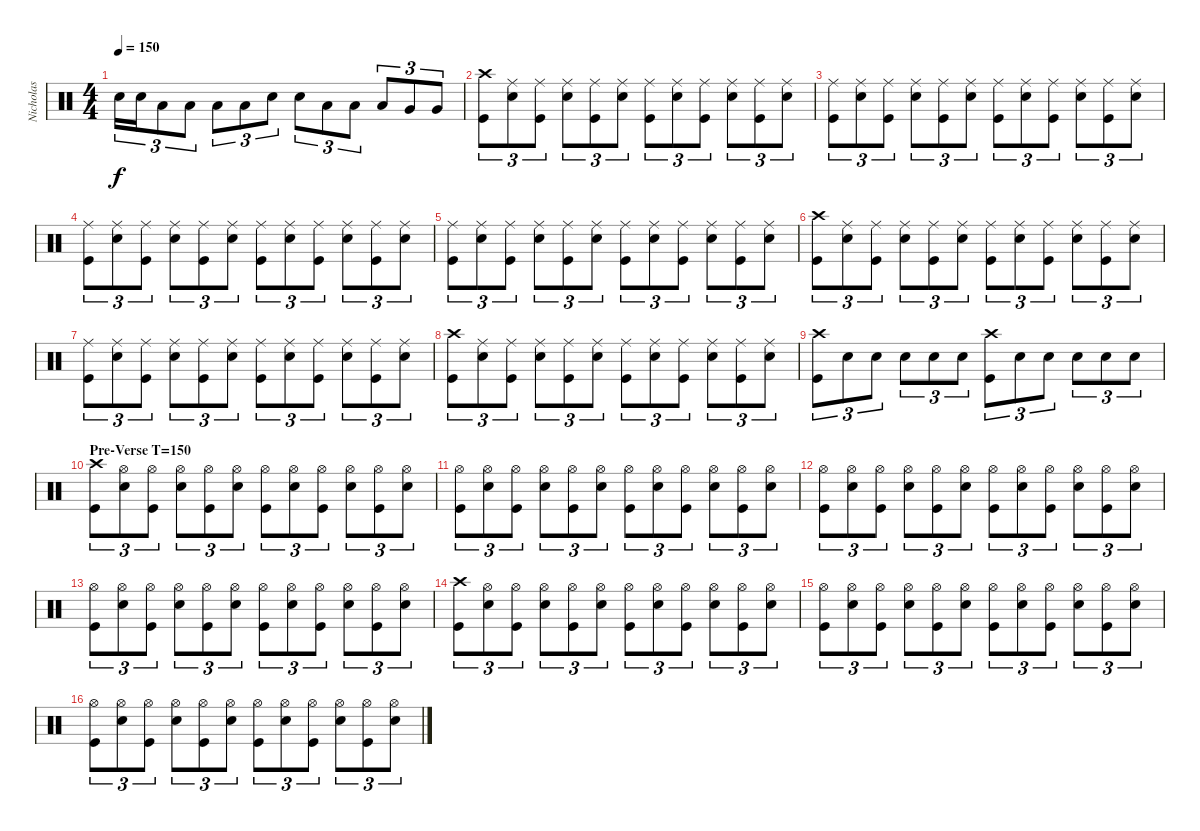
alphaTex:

\track ("Nicholas" "Nicholas") {instrument percussion}
\staff {score}
\articulation defaults
\ts (4 4)
\tempo 150
\clef neutral
\ks c "Electric Snare (hit)".16{tu (3 2) dy f} "Electric Snare (hit)".16{tu (3 2)} "Low Tom (hit)".8{tu (3 2) balance 11} "Low Tom (hit)".8{tu (3 2)} "Low Tom (hit)".8{tu (3 2)} "Low Tom (hit)".8{tu (3 2)} "Electric Snare (hit)".8{tu (3 2) balance 8} "Electric Snare (hit)".8{tu (3 2)} "Low Tom (hit)".8{tu (3 2) balance 11} "Low Tom (hit)".8{tu (3 2)} "Low Tom (hit)".8{tu (3 2)} "Very Low Tom (hit)".8{tu (3 2) balance 5} "Very Low Tom (hit)".8{tu (3 2)}
|
("Crash high (hit)" "Kick (hit)").8{tu (3 2) balance 8} ("Ride (middle)" "Electric Snare (hit)").8{tu (3 2)} ("Ride (middle)" "Kick (hit)").8{tu (3 2)} ("Ride (middle)" "Electric Snare (hit)").8{tu (3 2)} ("Ride (middle)" "Kick (hit)").8{tu (3 2)} ("Ride (middle)" "Electric Snare (hit)").8{tu (3 2)} ("Ride (middle)" "Kick (hit)").8{tu (3 2)} ("Ride (middle)" "Electric Snare (hit)").8{tu (3 2)} ("Ride (middle)" "Kick (hit)").8{tu (3 2)} ("Ride (middle)" "Electric Snare (hit)").8{tu (3 2)} ("Ride (middle)" "Kick (hit)").8{tu (3 2)} ("Ride (middle)" "Electric Snare (hit)").8{tu (3 2)} |
("Ride (middle)" "Kick (hit)").8{tu (3 2)} ("Ride (middle)" "Electric Snare (hit)").8{tu (3 2)} ("Ride (middle)" "Kick (hit)").8{tu (3 2)} ("Ride (middle)" "Electric Snare (hit)").8{tu (3 2)} ("Ride (middle)" "Kick (hit)").8{tu (3 2)} ("Ride (middle)" "Electric Snare (hit)").8{tu (3 2)} ("Ride (middle)" "Kick (hit)").8{tu (3 2)} ("Ride (middle)" "Electric Snare (hit)").8{tu (3 2)} ("Ride (middle)" "Kick (hit)").8{tu (3 2)} ("Ride (middle)" "Electric Snare (hit)").8{tu (3 2)} ("Ride (middle)" "Kick (hit)").8{tu (3 2)} ("Ride (middle)" "Electric Snare (hit)").8{tu (3 2)} |
("Ride (middle)" "Kick (hit)").8{tu (3 2)} ("Ride (middle)" "Electric Snare (hit)").8{tu (3 2)} ("Ride (middle)" "Kick (hit)").8{tu (3 2)} ("Ride (middle)" "Electric Snare (hit)").8{tu (3 2)} ("Ride (middle)" "Kick (hit)").8{tu (3 2)} ("Ride (middle)" "Electric Snare (hit)").8{tu (3 2)} ("Ride (middle)" "Kick (hit)").8{tu (3 2)} ("Ride (middle)" "Electric Snare (hit)").8{tu (3 2)} ("Ride (middle)" "Kick (hit)").8{tu (3 2)} ("Ride (middle)" "Electric Snare (hit)").8{tu (3 2)} ("Ride (middle)" "Kick (hit)").8{tu (3 2)} ("Ride (middle)" "Electric Snare (hit)").8{tu (3 2)} |
("Ride (middle)" "Kick (hit)").8{tu (3 2)} ("Ride (middle)" "Electric Snare (hit)").8{tu (3 2)} ("Ride (middle)" "Kick (hit)").8{tu (3 2)} ("Ride (middle)" "Electric Snare (hit)").8{tu (3 2)} ("Ride (middle)" "Kick (hit)").8{tu (3 2)} ("Ride (middle)" "Electric Snare (hit)").8{tu (3 2)} ("Ride (middle)" "Kick (hit)").8{tu (3 2)} ("Ride (middle)" "Electric Snare (hit)").8{tu (3 2)} ("Ride (middle)" "Kick (hit)").8{tu (3 2)} ("Ride (middle)" "Electric Snare (hit)").8{tu (3 2)} ("Ride (middle)" "Kick (hit)").8{tu (3 2)} ("Ride (middle)" "Electric Snare (hit)").8{tu (3 2)} |
("Crash high (hit)" "Kick (hit)").8{tu (3 2)} ("Ride (middle)" "Electric Snare (hit)").8{tu (3 2)} ("Ride (middle)" "Kick (hit)").8{tu (3 2)} ("Ride (middle)" "Electric Snare (hit)").8{tu (3 2)} ("Ride (middle)" "Kick (hit)").8{tu (3 2)} ("Ride (middle)" "Electric Snare (hit)").8{tu (3 2)} ("Ride (middle)" "Kick (hit)").8{tu (3 2)} ("Ride (middle)" "Electric Snare (hit)").8{tu (3 2)} ("Ride (middle)" "Kick (hit)").8{tu (3 2)} ("Ride (middle)" "Electric Snare (hit)").8{tu (3 2)} ("Ride (middle)" "Kick (hit)").8{tu (3 2)} ("Ride (middle)" "Electric Snare (hit)").8{tu (3 2)} |
("Ride (middle)" "Kick (hit)").8{tu (3 2)} ("Ride (middle)" "Electric Snare (hit)").8{tu (3 2)} ("Ride (middle)" "Kick (hit)").8{tu (3 2)} ("Ride (middle)" "Electric Snare (hit)").8{tu (3 2)} ("Ride (middle)" "Kick (hit)").8{tu (3 2)} ("Ride (middle)" "Electric Snare (hit)").8{tu (3 2)} ("Ride (middle)" "Kick (hit)").8{tu (3 2)} ("Ride (middle)" "Electric Snare (hit)").8{tu (3 2)} ("Ride (middle)" "Kick (hit)").8{tu (3 2)} ("Ride (middle)" "Electric Snare (hit)").8{tu (3 2)} ("Ride (middle)" "Kick (hit)").8{tu (3 2)} ("Ride (middle)" "Electric Snare (hit)").8{tu (3 2)} |
("Crash high (hit)" "Kick (hit)").8{tu (3 2)} ("Ride (middle)" "Electric Snare (hit)").8{tu (3 2)} ("Ride (middle)" "Kick (hit)").8{tu (3 2)} ("Ride (middle)" "Electric Snare (hit)").8{tu (3 2)} ("Ride (middle)" "Kick (hit)").8{tu (3 2)} ("Ride (middle)" "Electric Snare (hit)").8{tu (3 2)} ("Ride (middle)" "Kick (hit)").8{tu (3 2)} ("Ride (middle)" "Electric Snare (hit)").8{tu (3 2)} ("Ride (middle)" "Kick (hit)").8{tu (3 2)} ("Ride (middle)" "Electric Snare (hit)").8{tu (3 2)} ("Ride (middle)" "Kick (hit)").8{tu (3 2)} ("Ride (middle)" "Electric Snare (hit)").8{tu (3 2)} |
("Crash high (hit)" "Kick (hit)").8{tu (3 2)} "Electric Snare (hit)".8{tu (3 2)} "Electric Snare (hit)".8{tu (3 2)} "Electric Snare (hit)".8{tu (3 2)} "Electric Snare (hit)".8{tu (3 2)} "Electric Snare (hit)".8{tu (3 2)} ("Crash high (hit)" "Kick (hit)").8{tu (3 2)} "Electric Snare (hit)".8{tu (3 2)} "Electric Snare (hit)".8{tu (3 2)} "Electric Snare (hit)".8{tu (3 2)} "Electric Snare (hit)".8{tu (3 2)} "Electric Snare (hit)".8{tu (3 2)} |
\section ("" "Pre-Verse T=150")
("Crash high (hit)" "Kick (hit)").8{tu (3 2)} ("Hi-Hat (open)" "Electric Snare (hit)").8{tu (3 2)} ("Hi-Hat (open)" "Kick (hit)").8{tu (3 2)} ("Hi-Hat (open)" "Electric Snare (hit)").8{tu (3 2)} ("Hi-Hat (open)" "Kick (hit)").8{tu (3 2)} ("Hi-Hat (open)" "Electric Snare (hit)").8{tu (3 2)} ("Hi-Hat (open)" "Kick (hit)").8{tu (3 2)} ("Hi-Hat (open)" "Electric Snare (hit)").8{tu (3 2)} ("Hi-Hat (open)" "Kick (hit)").8{tu (3 2)} ("Hi-Hat (open)" "Electric Snare (hit)").8{tu (3 2)} ("Hi-Hat (open)" "Kick (hit)").8{tu (3 2)} ("Hi-Hat (open)" "Electric Snare (hit)").8{tu (3 2)} |
("Hi-Hat (open)" "Kick (hit)").8{tu (3 2)} ("Hi-Hat (open)" "Electric Snare (hit)").8{tu (3 2)} ("Hi-Hat (open)" "Kick (hit)").8{tu (3 2)} ("Hi-Hat (open)" "Electric Snare (hit)").8{tu (3 2)} ("Hi-Hat (open)" "Kick (hit)").8{tu (3 2)} ("Hi-Hat (open)" "Electric Snare (hit)").8{tu (3 2)} ("Hi-Hat (open)" "Kick (hit)").8{tu (3 2)} ("Hi-Hat (open)" "Electric Snare (hit)").8{tu (3 2)} ("Hi-Hat (open)" "Kick (hit)").8{tu (3 2)} ("Hi-Hat (open)" "Electric Snare (hit)").8{tu (3 2)} ("Hi-Hat (open)" "Kick (hit)").8{tu (3 2)} ("Hi-Hat (open)" "Electric Snare (hit)").8{tu (3 2)} |
("Hi-Hat (open)" "Kick (hit)").8{tu (3 2)} ("Hi-Hat (open)" "Electric Snare (hit)").8{tu (3 2)} ("Hi-Hat (open)" "Kick (hit)").8{tu (3 2)} ("Hi-Hat (open)" "Electric Snare (hit)").8{tu (3 2)} ("Hi-Hat (open)" "Kick (hit)").8{tu (3 2)} ("Hi-Hat (open)" "Electric Snare (hit)").8{tu (3 2)} ("Hi-Hat (open)" "Kick (hit)").8{tu (3 2)} ("Hi-Hat (open)" "Electric Snare (hit)").8{tu (3 2)} ("Hi-Hat (open)" "Kick (hit)").8{tu (3 2)} ("Hi-Hat (open)" "Electric Snare (hit)").8{tu (3 2)} ("Hi-Hat (open)" "Kick (hit)").8{tu (3 2)} ("Hi-Hat (open)" "Electric Snare (hit)").8{tu (3 2)} |
("Hi-Hat (open)" "Kick (hit)").8{tu (3 2)} ("Hi-Hat (open)" "Electric Snare (hit)").8{tu (3 2)} ("Hi-Hat (open)" "Kick (hit)").8{tu (3 2)} ("Hi-Hat (open)" "Electric Snare (hit)").8{tu (3 2)} ("Hi-Hat (open)" "Kick (hit)").8{tu (3 2)} ("Hi-Hat (open)" "Electric Snare (hit)").8{tu (3 2)} ("Hi-Hat (open)" "Kick (hit)").8{tu (3 2)} ("Hi-Hat (open)" "Electric Snare (hit)").8{tu (3 2)} ("Hi-Hat (open)" "Kick (hit)").8{tu (3 2)} ("Hi-Hat (open)" "Electric Snare (hit)").8{tu (3 2)} ("Hi-Hat (open)" "Kick (hit)").8{tu (3 2)} ("Hi-Hat (open)" "Electric Snare (hit)").8{tu (3 2)} |
("Crash high (hit)" "Kick (hit)").8{tu (3 2)} ("Hi-Hat (open)" "Electric Snare (hit)").8{tu (3 2)} ("Hi-Hat (open)" "Kick (hit)").8{tu (3 2)} ("Hi-Hat (open)" "Electric Snare (hit)").8{tu (3 2)} ("Hi-Hat (open)" "Kick (hit)").8{tu (3 2)} ("Hi-Hat (open)" "Electric Snare (hit)").8{tu (3 2)} ("Hi-Hat (open)" "Kick (hit)").8{tu (3 2)} ("Hi-Hat (open)" "Electric Snare (hit)").8{tu (3 2)} ("Hi-Hat (open)" "Kick (hit)").8{tu (3 2)} ("Hi-Hat (open)" "Electric Snare (hit)").8{tu (3 2)} ("Hi-Hat (open)" "Kick (hit)").8{tu (3 2)} ("Hi-Hat (open)" "Electric Snare (hit)").8{tu (3 2)} |
("Hi-Hat (open)" "Kick (hit)").8{tu (3 2)} ("Hi-Hat (open)" "Electric Snare (hit)").8{tu (3 2)} ("Hi-Hat (open)" "Kick (hit)").8{tu (3 2)} ("Hi-Hat (open)" "Electric Snare (hit)").8{tu (3 2)} ("Hi-Hat (open)" "Kick (hit)").8{tu (3 2)} ("Hi-Hat (open)" "Electric Snare (hit)").8{tu (3 2)} ("Hi-Hat (open)" "Kick (hit)").8{tu (3 2)} ("Hi-Hat (open)" "Electric Snare (hit)").8{tu (3 2)} ("Hi-Hat (open)" "Kick (hit)").8{tu (3 2)} ("Hi-Hat (open)" "Electric Snare (hit)").8{tu (3 2)} ("Hi-Hat (open)" "Kick (hit)").8{tu (3 2)} ("Hi-Hat (open)" "Electric Snare (hit)").8{tu (3 2)} |
("Hi-Hat (open)" "Kick (hit)").8{tu (3 2)} ("Hi-Hat (open)" "Electric Snare (hit)").8{tu (3 2)} ("Hi-Hat (open)" "Kick (hit)").8{tu (3 2)} ("Hi-Hat (open)" "Electric Snare (hit)").8{tu (3 2)} ("Hi-Hat (open)" "Kick (hit)").8{tu (3 2)} ("Hi-Hat (open)" "Electric Snare (hit)").8{tu (3 2)} ("Hi-Hat (open)" "Kick (hit)").8{tu (3 2)} ("Hi-Hat (open)" "Electric Snare (hit)").8{tu (3 2)} ("Hi-Hat (open)" "Kick (hit)").8{tu (3 2)} ("Hi-Hat (open)" "Electric Snare (hit)").8{tu (3 2)} ("Hi-Hat (open)" "Kick (hit)").8{tu (3 2)} ("Hi-Hat (open)" "Electric Snare (hit)").8{tu (3 2)}
